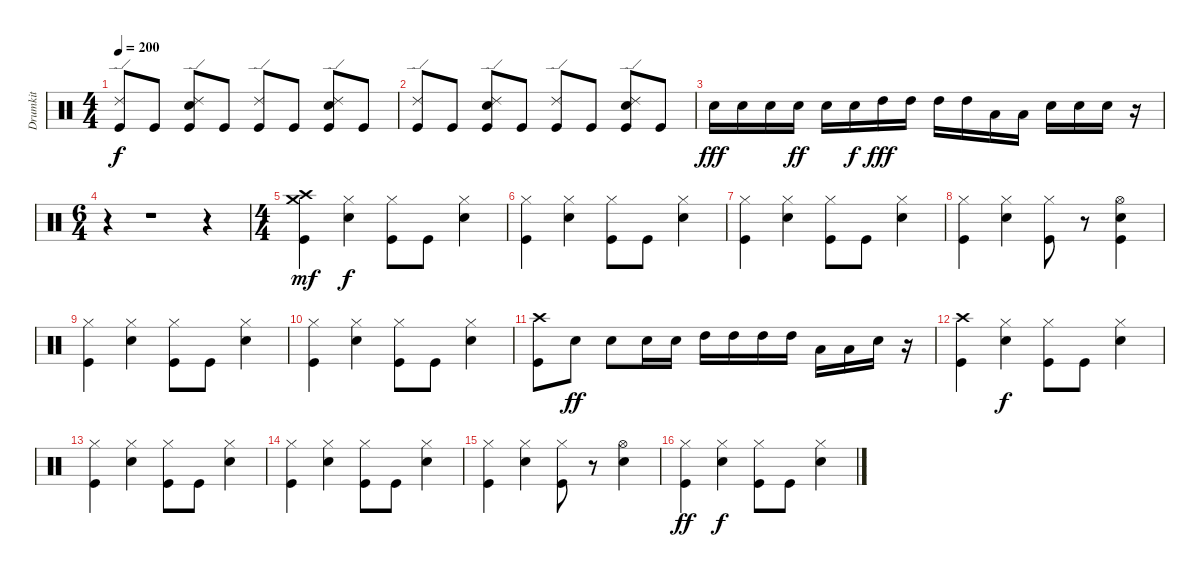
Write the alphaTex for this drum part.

\track ("Drumkit" "Drumkit") {instrument percussion}
\staff {score}
\articulation defaults
\ts (4 4)
\tempo 200
\clef neutral
\ks c
("Ride (edge) 2" "Kick (hit)").8{dy f} "Kick (hit)".8 ("Ride (edge) 2" "Snare (hit) 2" "Kick (hit)").8 "Kick (hit)".8 ("Ride (edge) 2" "Kick (hit)").8 "Kick (hit)".8 ("Ride (edge) 2" "Snare (hit) 2" "Kick (hit)").8 "Kick (hit)".8 |
("Ride (edge) 2" "Kick (hit)").8 "Kick (hit)".8 ("Ride (edge) 2" "Snare (hit) 2" "Kick (hit)").8 "Kick (hit)".8 ("Ride (edge) 2" "Kick (hit)").8 "Kick (hit)".8 ("Ride (edge) 2" "Snare (hit) 2" "Kick (hit)").8 "Kick (hit)".8 |
"Snare (hit) 2".16{dy fff} "Snare (hit) 2".16 "Snare (hit) 2".16 "Snare (hit) 2".16{dy ff} "Snare (hit) 2".16 "Snare (hit) 2".16{dy f} "High Tom (hit)".16{dy fff} "High Tom (hit)".16 "High Tom (hit)".16 "High Tom (hit)".16 "Low Tom (hit)".16 "Low Tom (hit)".16 "Snare (hit) 2".16 "Snare (hit) 2".16 "Snare (hit) 2".16 r.16 |
\ts (6 4)
r.4 r.1 r.4 |
\ts (4 4)
("Crash high (hit)" "Crash medium (hit)" "Kick (hit)").4{dy mf} ("Hi-Hat (closed)" "Snare (hit) 2").4{dy f} ("Hi-Hat (closed)" "Kick (hit)").8 "Kick (hit)".8 ("Hi-Hat (closed)" "Snare (hit) 2").4 |
("Hi-Hat (closed)" "Kick (hit)").4 ("Hi-Hat (closed)" "Snare (hit) 2").4 ("Hi-Hat (closed)" "Kick (hit)").8 "Kick (hit)".8 ("Hi-Hat (closed)" "Snare (hit) 2").4 |
("Hi-Hat (closed)" "Kick (hit)").4 ("Hi-Hat (closed)" "Snare (hit) 2").4 ("Hi-Hat (closed)" "Kick (hit)").8 "Kick (hit)".8 ("Hi-Hat (closed)" "Snare (hit) 2").4 |
("Hi-Hat (closed)" "Kick (hit)").4 ("Hi-Hat (closed)" "Snare (hit) 2").4 ("Hi-Hat (closed)" "Kick (hit)").8 r.8 ("Hi-Hat (open)" "Snare (hit) 2" "Kick (hit)").4 |
("Hi-Hat (closed)" "Kick (hit)").4 ("Hi-Hat (closed)" "Snare (hit) 2").4 ("Hi-Hat (closed)" "Kick (hit)").8 "Kick (hit)".8 ("Hi-Hat (closed)" "Snare (hit) 2").4 |
("Hi-Hat (closed)" "Kick (hit)").4 ("Hi-Hat (closed)" "Snare (hit) 2").4 ("Hi-Hat (closed)" "Kick (hit)").8 "Kick (hit)".8 ("Hi-Hat (closed)" "Snare (hit) 2").4 |
("Crash high (hit)" "Kick (hit)").8 "Snare (hit) 2".8{dy ff} "Snare (hit) 2".8 "Snare (hit) 2".16 "Snare (hit) 2".16 "High Tom (hit)".16 "High Tom (hit)".16 "High Tom (hit)".16 "High Tom (hit)".16 "Low Tom (hit)".16 "Low Tom (hit)".16 "Snare (hit) 2".16 r.16 |
("Crash high (hit)" "Kick (hit)").4 ("Hi-Hat (closed)" "Snare (hit) 2").4{dy f} ("Hi-Hat (closed)" "Kick (hit)").8 "Kick (hit)".8 ("Hi-Hat (closed)" "Snare (hit) 2").4 |
("Hi-Hat (closed)" "Kick (hit)").4 ("Hi-Hat (closed)" "Snare (hit) 2").4 ("Hi-Hat (closed)" "Kick (hit)").8 "Kick (hit)".8 ("Hi-Hat (closed)" "Snare (hit) 2").4 |
("Hi-Hat (closed)" "Kick (hit)").4 ("Hi-Hat (closed)" "Snare (hit) 2").4 ("Hi-Hat (closed)" "Kick (hit)").8 "Kick (hit)".8 ("Hi-Hat (closed)" "Snare (hit) 2").4 |
("Hi-Hat (closed)" "Kick (hit)").4 ("Hi-Hat (closed)" "Snare (hit) 2").4 ("Hi-Hat (closed)" "Kick (hit)").8 r.8 ("Hi-Hat (open)" "Snare (hit) 2").4 |
("Hi-Hat (closed)" "Kick (hit)").4{dy ff} ("Hi-Hat (closed)" "Snare (hit) 2").4{dy f} ("Hi-Hat (closed)" "Kick (hit)").8 "Kick (hit)".8 ("Hi-Hat (closed)" "Snare (hit) 2").4
